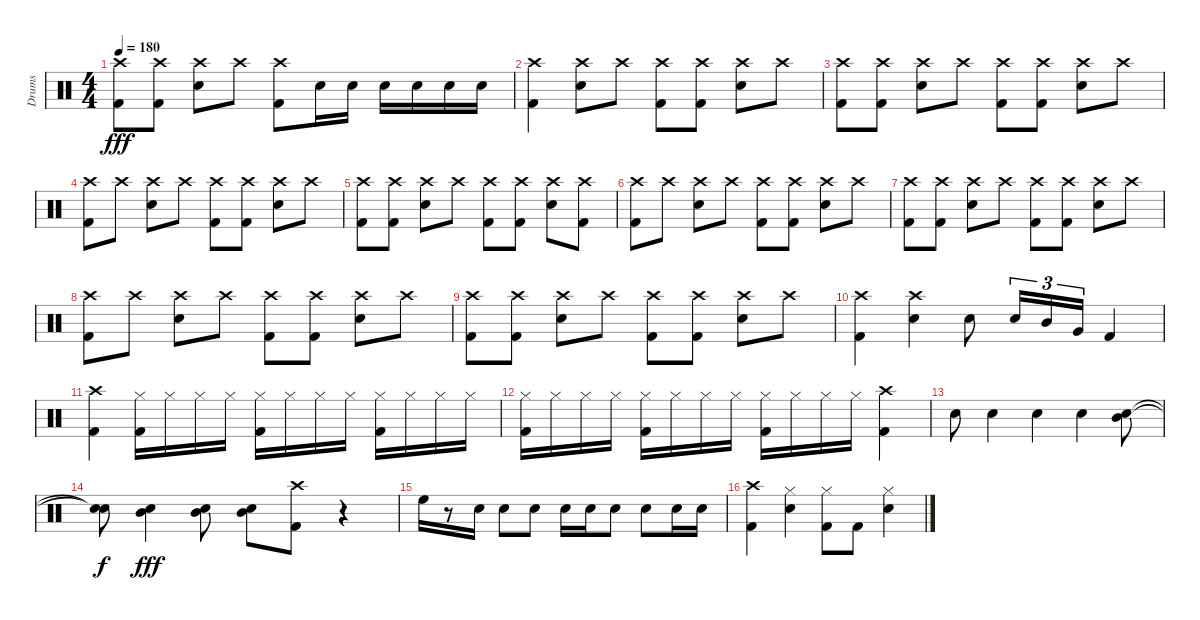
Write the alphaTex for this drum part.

\track ("Drums" "Drums") {instrument percussion}
\staff {score}
\articulation defaults
\ts (4 4)
\tempo 180
\clef neutral
\ks c
("Kick (hit) 2" "Crash high (hit)").8{dy fff} ("Kick (hit) 2" "Crash high (hit)").8 ("Crash high (hit)" "Snare (hit) 2").8 "Crash high (hit)".8 ("Crash high (hit)" "Kick (hit) 2").8 "Snare (hit) 2".16 "Snare (hit) 2".16 "Snare (hit) 2".16 "Snare (hit) 2".16 "Snare (hit) 2".16 "Snare (hit) 2".16 |
("Kick (hit) 2" "Crash high (hit)").4 ("Crash high (hit)" "Snare (hit) 2").8 "Crash high (hit)".8 ("Kick (hit) 2" "Crash high (hit)").8 ("Kick (hit) 2" "Crash high (hit)").8 ("Snare (hit) 2" "Crash high (hit)").8 "Crash high (hit)".8 |
("Kick (hit) 2" "Crash high (hit)").8 ("Kick (hit) 2" "Crash high (hit)").8 ("Crash high (hit)" "Snare (hit) 2").8 "Crash high (hit)".8 ("Kick (hit) 2" "Crash high (hit)").8 ("Kick (hit) 2" "Crash high (hit)").8 ("Snare (hit) 2" "Crash high (hit)").8 "Crash high (hit)".8 |
("Kick (hit) 2" "Crash high (hit)").8 "Crash high (hit)".8 ("Crash high (hit)" "Snare (hit) 2").8 "Crash high (hit)".8 ("Kick (hit) 2" "Crash high (hit)").8 ("Kick (hit) 2" "Crash high (hit)").8 ("Snare (hit) 2" "Crash high (hit)").8 "Crash high (hit)".8 |
("Kick (hit) 2" "Crash high (hit)").8 ("Kick (hit) 2" "Crash high (hit)").8 ("Crash high (hit)" "Snare (hit) 2").8 "Crash high (hit)".8 ("Kick (hit) 2" "Crash high (hit)").8 ("Kick (hit) 2" "Crash high (hit)").8 ("Snare (hit) 2" "Crash high (hit)").8 ("Kick (hit) 2" "Crash high (hit)").8 |
("Kick (hit) 2" "Crash high (hit)").8 "Crash high (hit)".8 ("Crash high (hit)" "Snare (hit) 2").8 "Crash high (hit)".8 ("Kick (hit) 2" "Crash high (hit)").8 ("Kick (hit) 2" "Crash high (hit)").8 ("Snare (hit) 2" "Crash high (hit)").8 "Crash high (hit)".8 |
("Kick (hit) 2" "Crash high (hit)").8 ("Kick (hit) 2" "Crash high (hit)").8 ("Crash high (hit)" "Snare (hit) 2").8 "Crash high (hit)".8 ("Kick (hit) 2" "Crash high (hit)").8 ("Kick (hit) 2" "Crash high (hit)").8 ("Snare (hit) 2" "Crash high (hit)").8 "Crash high (hit)".8 |
("Kick (hit) 2" "Crash high (hit)").8 "Crash high (hit)".8 ("Crash high (hit)" "Snare (hit) 2").8 "Crash high (hit)".8 ("Kick (hit) 2" "Crash high (hit)").8 ("Kick (hit) 2" "Crash high (hit)").8 ("Snare (hit) 2" "Crash high (hit)").8 "Crash high (hit)".8 |
("Kick (hit) 2" "Crash high (hit)").8 ("Kick (hit) 2" "Crash high (hit)").8 ("Crash high (hit)" "Snare (hit) 2").8 "Crash high (hit)".8 ("Kick (hit) 2" "Crash high (hit)").8 ("Kick (hit) 2" "Crash high (hit)").8 ("Snare (hit) 2" "Crash high (hit)").8 "Crash high (hit)".8 |
("Crash high (hit)" "Kick (hit) 2").4 ("Snare (hit) 2" "Crash high (hit)").4 "Snare (hit) 2".8 "Snare (hit) 2".16{tu (3 2)} "Mid Tom (hit)".16{tu (3 2)} "Very Low Tom (hit)".16{tu (3 2)} "Kick (hit) 2".4 |
("Kick (hit) 2" "Crash high (hit)").4 ("Kick (hit) 2" "Hi-Hat (closed)").16 "Hi-Hat (closed)".16 "Hi-Hat (closed)".16 "Hi-Hat (closed)".16 ("Kick (hit) 2" "Hi-Hat (closed)").16 "Hi-Hat (closed)".16 "Hi-Hat (closed)".16 "Hi-Hat (closed)".16 ("Kick (hit) 2" "Hi-Hat (closed)").16 "Hi-Hat (closed)".16 "Hi-Hat (closed)".16 "Hi-Hat (closed)".16 |
("Kick (hit) 2" "Hi-Hat (closed)").16 "Hi-Hat (closed)".16 "Hi-Hat (closed)".16 "Hi-Hat (closed)".16 ("Kick (hit) 2" "Hi-Hat (closed)").16 "Hi-Hat (closed)".16 "Hi-Hat (closed)".16 "Hi-Hat (closed)".16 ("Kick (hit) 2" "Hi-Hat (closed)").16 "Hi-Hat (closed)".16 "Hi-Hat (closed)".16 "Hi-Hat (closed)".16 ("Kick (hit) 2" "Crash high (hit)").4 |
"Snare (hit) 2".8 "Snare (hit) 2".4 "Snare (hit) 2".4 "Snare (hit) 2".4 ("Mid Tom (hit)" "Snare (hit) 2").8 |
("Snare (hit)"{t} "Snare (hit)"{t}).8{dy f} ("Mid Tom (hit)" "Snare (hit) 2").4{dy fff} ("Snare (hit) 2" "Mid Tom (hit)").8 ("Mid Tom (hit)" "Snare (hit) 2").8 ("Kick (hit) 2" "Crash high (hit)").8 r.4 |
"High Floor Tom (hit)".16 r.8 "Snare (hit) 2".16 "Snare (hit) 2".8 "Snare (hit) 2".8 "Snare (hit) 2".16 "Snare (hit) 2".16 "Snare (hit) 2".8 "Snare (hit) 2".8 "Snare (hit) 2".16 "Snare (hit) 2".16 |
("Crash high (hit)" "Kick (hit) 2").4 ("Snare (hit) 2" "Hi-Hat (closed)").4 ("Kick (hit) 2" "Hi-Hat (closed)").8 "Kick (hit) 2".8 ("Snare (hit) 2" "Hi-Hat (closed)").4
